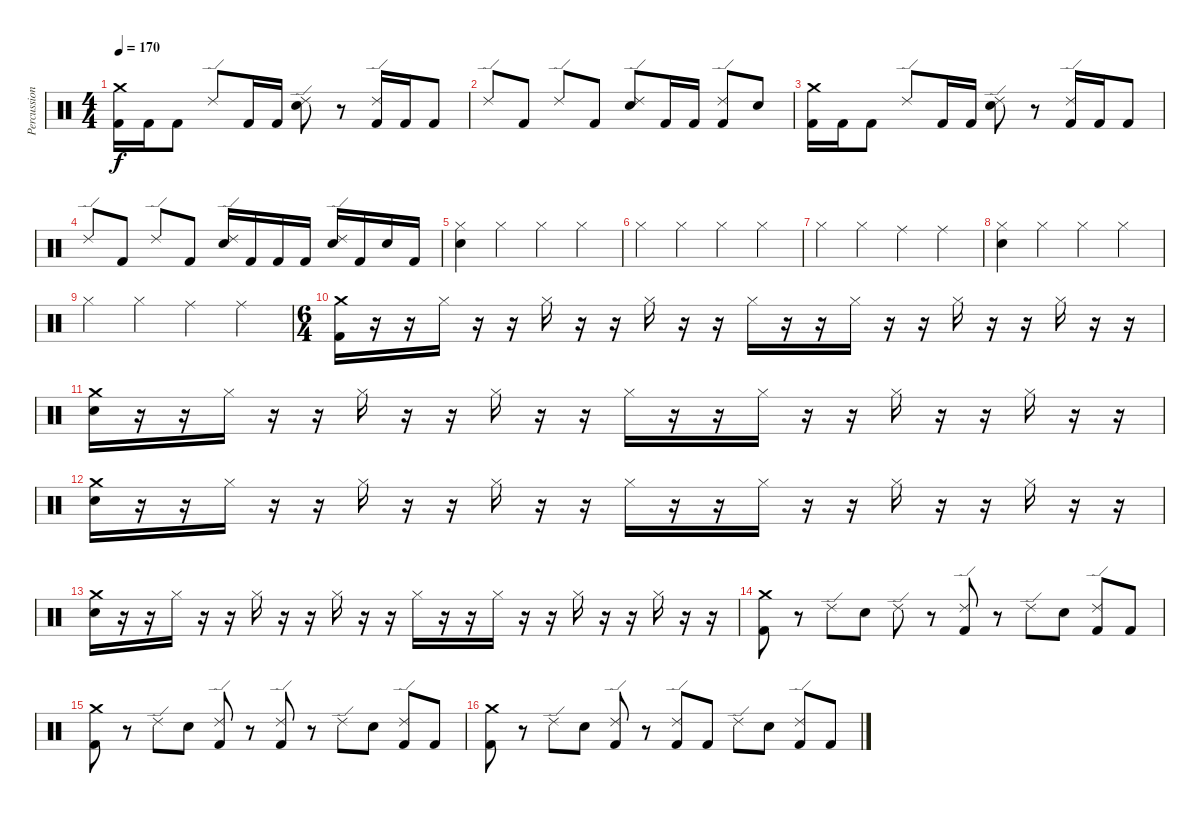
\track ("Percussion" "Percussion") {instrument percussion}
\staff {score}
\articulation defaults
\ts (4 4)
\tempo 170
\clef neutral
\ks c
("Crash medium (hit)" "Kick (hit) 2").16{dy f} "Kick (hit) 2".16 "Kick (hit) 2".8 "Ride (edge) 2".8 "Kick (hit) 2".16 "Kick (hit) 2".16 ("Ride (edge) 2" "Electric Snare (hit)").8 r.8 ("Ride (edge) 2" "Kick (hit) 2").16 "Kick (hit) 2".16 "Kick (hit) 2".8 |
"Ride (edge) 2".8 "Kick (hit) 2".8 "Ride (edge) 2".8 "Kick (hit) 2".8 ("Electric Snare (hit)" "Ride (edge) 2").8 "Kick (hit) 2".16 "Kick (hit) 2".16 ("Kick (hit) 2" "Ride (edge) 2").8 "Electric Snare (hit)".8 |
("Crash medium (hit)" "Kick (hit) 2").16 "Kick (hit) 2".16 "Kick (hit) 2".8 "Ride (edge) 2".8 "Kick (hit) 2".16 "Kick (hit) 2".16 ("Ride (edge) 2" "Electric Snare (hit)").8 r.8 ("Ride (edge) 2" "Kick (hit) 2").16 "Kick (hit) 2".16 "Kick (hit) 2".8 |
"Ride (edge) 2".8 "Kick (hit) 2".8 "Ride (edge) 2".8 "Kick (hit) 2".8 ("Electric Snare (hit)" "Ride (edge) 2").16 "Kick (hit) 2".16 "Kick (hit) 2".16 "Kick (hit) 2".16 ("Electric Snare (hit)" "Ride (edge) 2").16 "Kick (hit) 2".16 "Electric Snare (hit)".16 "Kick (hit) 2".16 |
("Hi-Hat (closed)" "Electric Snare (hit)").4 "Hi-Hat (closed)".4 "Hi-Hat (closed)".4 "Hi-Hat (closed)".4 |
"Hi-Hat (closed)".4 "Hi-Hat (closed)".4 "Hi-Hat (closed)".4 "Hi-Hat (closed)".4 |
"Hi-Hat (closed)".4 "Hi-Hat (closed)".4 "Ride (middle)".4 "Ride (middle)".4 |
("Hi-Hat (closed)" "Electric Snare (hit)").4 "Hi-Hat (closed)".4 "Hi-Hat (closed)".4 "Hi-Hat (closed)".4 |
"Hi-Hat (closed)".4 "Hi-Hat (closed)".4 "Ride (middle)".4 "Ride (middle)".4 |
\ts (6 4)
("Kick (hit) 2" "Crash medium (hit)").16 r.16 r.16 "Hi-Hat (closed)".16 r.16 r.16 "Hi-Hat (closed)".16 r.16 r.16 "Hi-Hat (closed)".16 r.16 r.16 "Hi-Hat (closed)".16 r.16 r.16 "Hi-Hat (closed)".16 r.16 r.16 "Hi-Hat (closed)".16 r.16 r.16 "Hi-Hat (closed)".16 r.16 r.16 |
("Electric Snare (hit)" "Crash medium (hit)").16 r.16 r.16 "Hi-Hat (closed)".16 r.16 r.16 "Hi-Hat (closed)".16 r.16 r.16 "Hi-Hat (closed)".16 r.16 r.16 "Hi-Hat (closed)".16 r.16 r.16 "Hi-Hat (closed)".16 r.16 r.16 "Hi-Hat (closed)".16 r.16 r.16 "Hi-Hat (closed)".16 r.16 r.16 |
("Electric Snare (hit)" "Crash medium (hit)").16 r.16 r.16 "Hi-Hat (closed)".16 r.16 r.16 "Hi-Hat (closed)".16 r.16 r.16 "Hi-Hat (closed)".16 r.16 r.16 "Hi-Hat (closed)".16 r.16 r.16 "Hi-Hat (closed)".16 r.16 r.16 "Hi-Hat (closed)".16 r.16 r.16 "Hi-Hat (closed)".16 r.16 r.16 |
("Electric Snare (hit)" "Crash medium (hit)").16 r.16 r.16 "Hi-Hat (closed)".16 r.16 r.16 "Hi-Hat (closed)".16 r.16 r.16 "Hi-Hat (closed)".16 r.16 r.16 "Hi-Hat (closed)".16 r.16 r.16 "Hi-Hat (closed)".16 r.16 r.16 "Hi-Hat (closed)".16 r.16 r.16 "Hi-Hat (closed)".16 r.16 r.16 |
("Crash medium (hit)" "Kick (hit) 2").8 r.8 "Ride (edge) 2".8 "Electric Snare (hit)".8 "Ride (edge) 2".8 r.8 ("Ride (edge) 2" "Kick (hit) 2").8 r.8 "Ride (edge) 2".8 "Electric Snare (hit)".8 ("Ride (edge) 2" "Kick (hit) 2").8 "Kick (hit) 2".8 |
("Crash medium (hit)" "Kick (hit) 2").8 r.8 "Ride (edge) 2".8 "Electric Snare (hit)".8 ("Kick (hit) 2" "Ride (edge) 2").8 r.8 ("Ride (edge) 2" "Kick (hit) 2").8 r.8 "Ride (edge) 2".8 "Electric Snare (hit)".8 ("Ride (edge) 2" "Kick (hit) 2").8 "Kick (hit) 2".8 |
("Crash medium (hit)" "Kick (hit) 2").8 r.8 "Ride (edge) 2".8 "Electric Snare (hit)".8 ("Kick (hit) 2" "Ride (edge) 2").8 r.8 ("Ride (edge) 2" "Kick (hit) 2").8 "Kick (hit) 2".8 "Ride (edge) 2".8 "Electric Snare (hit)".8 ("Ride (edge) 2" "Kick (hit) 2").8 "Kick (hit) 2".8
